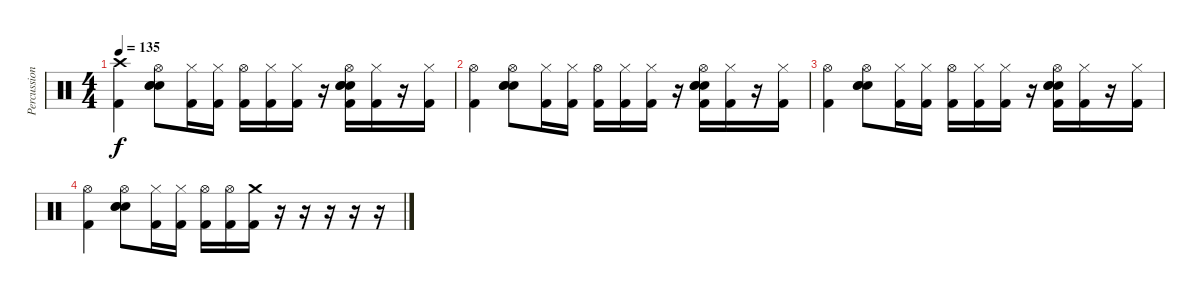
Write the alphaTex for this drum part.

\track ("Percussions" "Percussion") {instrument percussion}
\staff {score}
\articulation defaults
\ts (4 4)
\tempo 135
\clef neutral
\ks c
("Crash high (hit)" "Kick (hit) 2").4{dy f} ("Hi-Hat (open)" "Snare (hit) 2" "Electric Snare (hit)" "Electric Snare (hit)").8 ("Hi-Hat (closed)" "Kick (hit) 2").16 ("Hi-Hat (closed)" "Kick (hit) 2").16 ("Hi-Hat (open)" "Kick (hit) 2").16 ("Hi-Hat (closed)" "Kick (hit) 2").16 ("Hi-Hat (closed)" "Kick (hit) 2").16 r.16 ("Hi-Hat (open)" "Kick (hit) 2" "Snare (hit) 2" "Electric Snare (hit)" "Electric Snare (hit)").16 ("Hi-Hat (closed)" "Kick (hit) 2").16 r.16 ("Hi-Hat (closed)" "Kick (hit) 2").16 |
("Hi-Hat (open)" "Kick (hit) 2").4 ("Hi-Hat (open)" "Snare (hit) 2" "Electric Snare (hit)" "Electric Snare (hit)").8 ("Hi-Hat (closed)" "Kick (hit) 2").16 ("Hi-Hat (closed)" "Kick (hit) 2").16 ("Hi-Hat (open)" "Kick (hit) 2").16 ("Hi-Hat (closed)" "Kick (hit) 2").16 ("Hi-Hat (closed)" "Kick (hit) 2").16 r.16 ("Hi-Hat (open)" "Kick (hit) 2" "Snare (hit) 2" "Electric Snare (hit)" "Electric Snare (hit)").16 ("Hi-Hat (closed)" "Kick (hit) 2").16 r.16 ("Hi-Hat (closed)" "Kick (hit) 2").16 |
("Hi-Hat (open)" "Kick (hit) 2").4 ("Hi-Hat (open)" "Snare (hit) 2" "Electric Snare (hit)" "Electric Snare (hit)").8 ("Hi-Hat (closed)" "Kick (hit) 2").16 ("Hi-Hat (closed)" "Kick (hit) 2").16 ("Hi-Hat (open)" "Kick (hit) 2").16 ("Hi-Hat (closed)" "Kick (hit) 2").16 ("Hi-Hat (closed)" "Kick (hit) 2").16 r.16 ("Hi-Hat (open)" "Kick (hit) 2" "Snare (hit) 2" "Electric Snare (hit)" "Electric Snare (hit)").16 ("Hi-Hat (closed)" "Kick (hit) 2").16 r.16 ("Hi-Hat (closed)" "Kick (hit) 2").16 |
("Hi-Hat (open)" "Kick (hit) 2").4 ("Hi-Hat (open)" "Snare (hit) 2" "Electric Snare (hit)" "Electric Snare (hit)").8 ("Hi-Hat (closed)" "Kick (hit) 2").16 ("Hi-Hat (closed)" "Kick (hit) 2").16 ("Hi-Hat (open)" "Kick (hit) 2").16 ("Hi-Hat (open)" "Kick (hit) 2").16 ("Crash medium (hit)" "Kick (hit) 2").16 r.16 r.16 r.16 r.16 r.16
